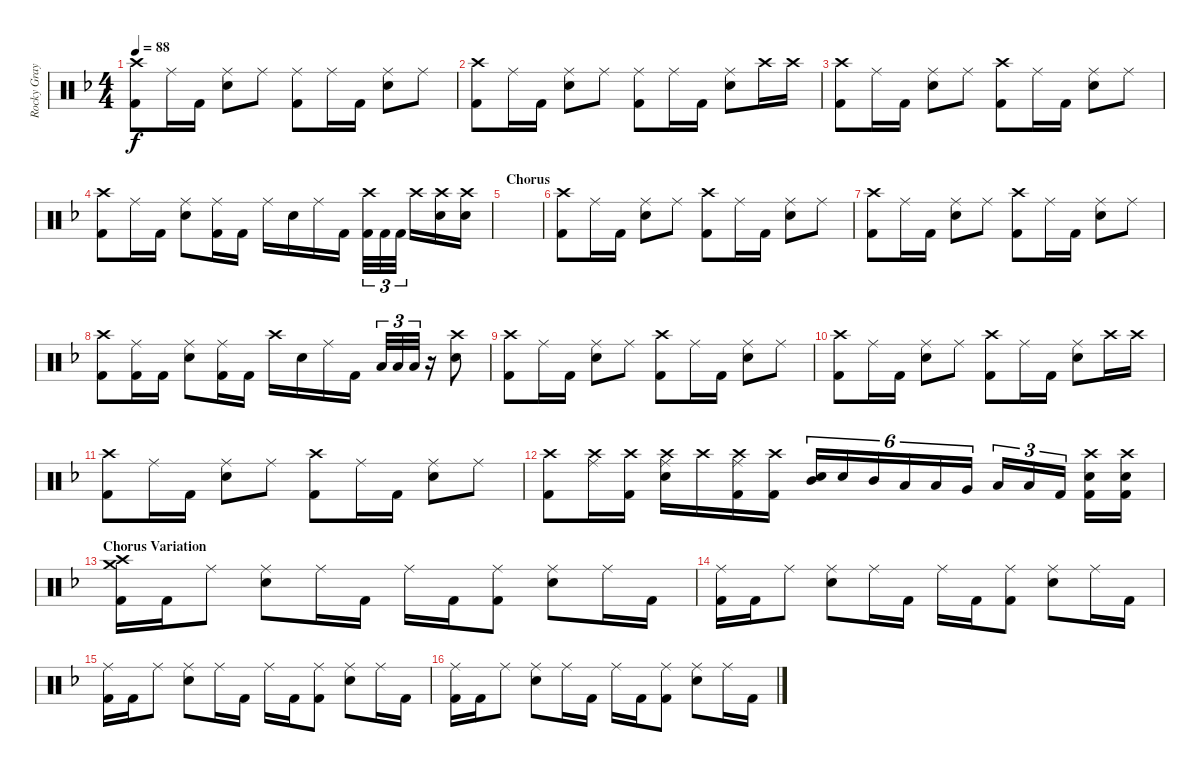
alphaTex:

\track ("Rocky Gray" "Rocky Gray") {instrument percussion}
\staff {score}
\articulation defaults
\ts (4 4)
\tempo 88
\clef neutral
\ks f
("Crash high (hit)" "Kick (hit) 2").8{dy f} "Ride (middle)".16 "Kick (hit) 2".16 ("Ride (middle)" "Snare (hit) 2").8 "Ride (middle)".8 ("Ride (middle)" "Kick (hit) 2").8 "Ride (middle)".16 "Kick (hit) 2".16 ("Ride (middle)" "Snare (hit) 2").8 "Ride (middle)".8 |
("Crash high (hit)" "Kick (hit) 2").8 "Ride (middle)".16 "Kick (hit) 2".16 ("Ride (middle)" "Snare (hit) 2").8 "Ride (middle)".8 ("Ride (middle)" "Kick (hit) 2").8 "Ride (middle)".16 "Kick (hit) 2".16 ("Ride (middle)" "Snare (hit) 2").8 "Crash high (hit)".16 "Crash high (hit)".16 |
("Crash high (hit)" "Kick (hit) 2").8 "Ride (middle)".16 "Kick (hit) 2".16 ("Ride (middle)" "Snare (hit) 2").8 "Ride (middle)".8 ("Crash high (hit)" "Kick (hit) 2").8 "Ride (middle)".16 "Kick (hit) 2".16 ("Ride (middle)" "Snare (hit) 2").8 "Ride (middle)".8 |
("Crash high (hit)" "Kick (hit) 2").8 "Ride (middle)".16 "Kick (hit) 2".16 ("Ride (middle)" "Snare (hit) 2").8 ("Ride (middle)" "Kick (hit) 2").16 "Kick (hit) 2".16 "Ride (middle)".16 "Snare (hit) 2".16 "Ride (middle)".16 "Kick (hit) 2".16 ("Crash high (hit)" "Kick (hit) 2").32{tu (3 2)} "Kick (hit) 2".32{tu (3 2)} "Kick (hit) 2".32{tu (3 2)} "Crash high (hit)".16 ("Crash high (hit)" "Snare (hit) 2").16 ("Crash high (hit)" "Snare (hit) 2").16 |
\section ("" "Chorus")
|
("Crash high (hit)" "Kick (hit) 2").8 "Ride (middle)".16 "Kick (hit) 2".16 ("Ride (middle)" "Snare (hit) 2").8 "Ride (middle)".8 ("Crash high (hit)" "Kick (hit) 2").8 "Ride (middle)".16 "Kick (hit) 2".16 ("Ride (middle)" "Snare (hit) 2").8 "Ride (middle)".8 |
("Crash high (hit)" "Kick (hit) 2").8 "Ride (middle)".16 "Kick (hit) 2".16 ("Ride (middle)" "Snare (hit) 2").8 "Ride (middle)".8 ("Crash high (hit)" "Kick (hit) 2").8 "Ride (middle)".16 "Kick (hit) 2".16 ("Ride (middle)" "Snare (hit) 2").8 "Ride (middle)".8 |
("Crash high (hit)" "Kick (hit) 2").8 ("Ride (middle)" "Kick (hit) 2").16 "Kick (hit) 2".16 ("Ride (middle)" "Snare (hit) 2").8 ("Ride (middle)" "Kick (hit) 2").16 "Kick (hit) 2".16 "Crash high (hit)".16 "Snare (hit) 2".16 "Ride (middle)".16 "Kick (hit) 2".16 "Low Floor Tom (hit)".32{tu (3 2)} "Low Floor Tom (hit)".32{tu (3 2)} "Low Floor Tom (hit)".32{tu (3 2)} r.16 ("Crash high (hit)" "Snare (hit) 2").8 |
("Crash high (hit)" "Kick (hit) 2").8 "Ride (middle)".16 "Kick (hit) 2".16 ("Ride (middle)" "Snare (hit) 2").8 "Ride (middle)".8 ("Crash high (hit)" "Kick (hit) 2").8 "Ride (middle)".16 "Kick (hit) 2".16 ("Ride (middle)" "Snare (hit) 2").8 "Ride (middle)".8 |
("Crash high (hit)" "Kick (hit) 2").8 "Ride (middle)".16 "Kick (hit) 2".16 ("Ride (middle)" "Snare (hit) 2").8 "Ride (middle)".8 ("Crash high (hit)" "Kick (hit) 2").8 "Ride (middle)".16 "Kick (hit) 2".16 ("Ride (middle)" "Snare (hit) 2").8 "Crash high (hit)".16 "Crash high (hit)".16 |
("Crash high (hit)" "Kick (hit) 2").8 "Ride (middle)".16 "Kick (hit) 2".16 ("Ride (middle)" "Snare (hit) 2").8 "Ride (middle)".8 ("Crash high (hit)" "Kick (hit) 2").8 "Ride (middle)".16 "Kick (hit) 2".16 ("Ride (middle)" "Snare (hit) 2").8 "Ride (middle)".8 |
("Crash high (hit)" "Kick (hit) 2").8 ("Crash high (hit)" "Ride (middle)").16 ("Crash high (hit)" "Kick (hit) 2").16 ("Crash high (hit)" "Ride (middle)" "Snare (hit) 2").16 "Crash high (hit)".16 ("Crash high (hit)" "Ride (middle)" "Kick (hit) 2").16 ("Crash high (hit)" "Kick (hit) 2").16 ("Mid Tom (hit)" "Snare (hit) 2").16{tu (6 4)} "Snare (hit) 2".16{tu (6 4)} "Mid Tom (hit)".16{tu (6 4)} "Low Tom (hit)".16{tu (6 4)} "Low Tom (hit)".16{tu (6 4)} "Very Low Tom (hit)".16{tu (6 4)} "Low Floor Tom (hit)".16{tu (3 2)} "Low Floor Tom (hit)".16{tu (3 2)} "Kick (hit) 2".16{tu (3 2)} ("Crash high (hit)" "Snare (hit) 2" "Kick (hit) 2").16 ("Crash high (hit)" "Snare (hit) 2" "Kick (hit) 2").16 |
\section ("" "Chorus Variation")
("Crash high (hit)" "Crash medium (hit)" "Kick (hit) 2").16 "Kick (hit) 2".16 "Ride (middle)".8 ("Ride (middle)" "Snare (hit) 2").8 "Ride (middle)".16 "Kick (hit) 2".16 "Ride (middle)".16 "Kick (hit) 2".16 ("Ride (middle)" "Kick (hit) 2").8 ("Ride (middle)" "Snare (hit) 2").8 "Ride (middle)".16 "Kick (hit) 2".16 |
("Ride (middle)" "Kick (hit) 2").16 "Kick (hit) 2".16 "Ride (middle)".8 ("Ride (middle)" "Snare (hit) 2").8 "Ride (middle)".16 "Kick (hit) 2".16 "Ride (middle)".16 "Kick (hit) 2".16 ("Ride (middle)" "Kick (hit) 2").8 ("Ride (middle)" "Snare (hit) 2").8 "Ride (middle)".16 "Kick (hit) 2".16 |
("Ride (middle)" "Kick (hit) 2").16 "Kick (hit) 2".16 "Ride (middle)".8 ("Ride (middle)" "Snare (hit) 2").8 "Ride (middle)".16 "Kick (hit) 2".16 "Ride (middle)".16 "Kick (hit) 2".16 ("Ride (middle)" "Kick (hit) 2").8 ("Ride (middle)" "Snare (hit) 2").8 "Ride (middle)".16 "Kick (hit) 2".16 |
("Ride (middle)" "Kick (hit) 2").16 "Kick (hit) 2".16 "Ride (middle)".8 ("Ride (middle)" "Snare (hit) 2").8 "Ride (middle)".16 "Kick (hit) 2".16 "Ride (middle)".16 "Kick (hit) 2".16 ("Ride (middle)" "Kick (hit) 2").8 ("Ride (middle)" "Snare (hit) 2").8 "Ride (middle)".16 "Kick (hit) 2".16
